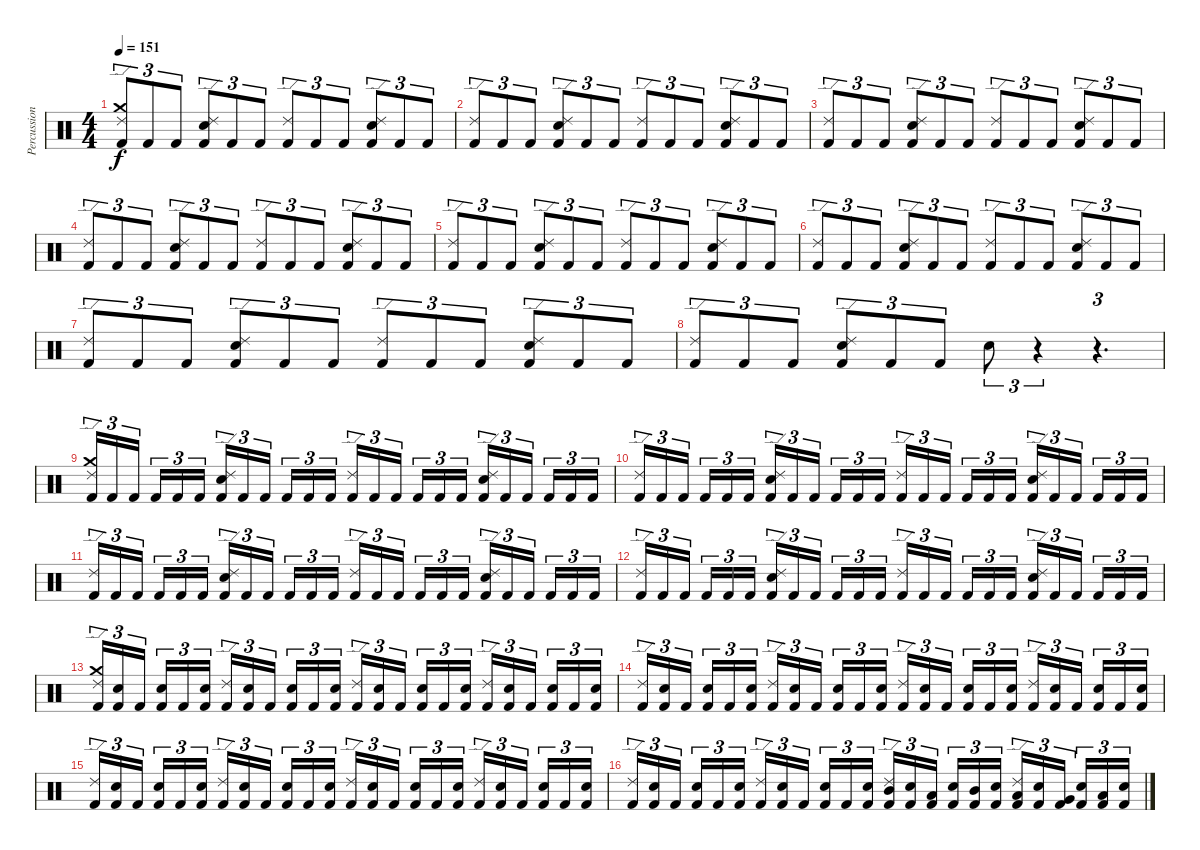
\track ("Percussion" "Percussion") {instrument percussion}
\staff {score}
\articulation defaults
\ts (4 4)
\tempo 151
\clef neutral
\ks c
("Kick (hit) 2" "Crash medium (hit)" "Ride (edge) 2").8{tu (3 2) dy f} "Kick (hit) 2".8{tu (3 2)} "Kick (hit) 2".8{tu (3 2)} ("Kick (hit) 2" "Electric Snare (hit)" "Ride (edge) 2").8{tu (3 2)} "Kick (hit) 2".8{tu (3 2)} "Kick (hit) 2".8{tu (3 2)} ("Kick (hit) 2" "Ride (edge) 2").8{tu (3 2)} "Kick (hit) 2".8{tu (3 2)} "Kick (hit) 2".8{tu (3 2)} ("Kick (hit) 2" "Electric Snare (hit)" "Ride (edge) 2").8{tu (3 2)} "Kick (hit) 2".8{tu (3 2)} "Kick (hit) 2".8{tu (3 2)} |
("Kick (hit) 2" "Ride (edge) 2").8{tu (3 2)} "Kick (hit) 2".8{tu (3 2)} "Kick (hit) 2".8{tu (3 2)} ("Kick (hit) 2" "Electric Snare (hit)" "Ride (edge) 2").8{tu (3 2)} "Kick (hit) 2".8{tu (3 2)} "Kick (hit) 2".8{tu (3 2)} ("Kick (hit) 2" "Ride (edge) 2").8{tu (3 2)} "Kick (hit) 2".8{tu (3 2)} "Kick (hit) 2".8{tu (3 2)} ("Kick (hit) 2" "Electric Snare (hit)" "Ride (edge) 2").8{tu (3 2)} "Kick (hit) 2".8{tu (3 2)} "Kick (hit) 2".8{tu (3 2)} |
("Kick (hit) 2" "Ride (edge) 2").8{tu (3 2)} "Kick (hit) 2".8{tu (3 2)} "Kick (hit) 2".8{tu (3 2)} ("Kick (hit) 2" "Electric Snare (hit)" "Ride (edge) 2").8{tu (3 2)} "Kick (hit) 2".8{tu (3 2)} "Kick (hit) 2".8{tu (3 2)} ("Kick (hit) 2" "Ride (edge) 2").8{tu (3 2)} "Kick (hit) 2".8{tu (3 2)} "Kick (hit) 2".8{tu (3 2)} ("Kick (hit) 2" "Electric Snare (hit)" "Ride (edge) 2").8{tu (3 2)} "Kick (hit) 2".8{tu (3 2)} "Kick (hit) 2".8{tu (3 2)} |
("Kick (hit) 2" "Ride (edge) 2").8{tu (3 2)} "Kick (hit) 2".8{tu (3 2)} "Kick (hit) 2".8{tu (3 2)} ("Kick (hit) 2" "Electric Snare (hit)" "Ride (edge) 2").8{tu (3 2)} "Kick (hit) 2".8{tu (3 2)} "Kick (hit) 2".8{tu (3 2)} ("Kick (hit) 2" "Ride (edge) 2").8{tu (3 2)} "Kick (hit) 2".8{tu (3 2)} "Kick (hit) 2".8{tu (3 2)} ("Kick (hit) 2" "Electric Snare (hit)" "Ride (edge) 2").8{tu (3 2)} "Kick (hit) 2".8{tu (3 2)} "Kick (hit) 2".8{tu (3 2)} |
("Kick (hit) 2" "Ride (edge) 2").8{tu (3 2)} "Kick (hit) 2".8{tu (3 2)} "Kick (hit) 2".8{tu (3 2)} ("Kick (hit) 2" "Electric Snare (hit)" "Ride (edge) 2").8{tu (3 2)} "Kick (hit) 2".8{tu (3 2)} "Kick (hit) 2".8{tu (3 2)} ("Kick (hit) 2" "Ride (edge) 2").8{tu (3 2)} "Kick (hit) 2".8{tu (3 2)} "Kick (hit) 2".8{tu (3 2)} ("Kick (hit) 2" "Electric Snare (hit)" "Ride (edge) 2").8{tu (3 2)} "Kick (hit) 2".8{tu (3 2)} "Kick (hit) 2".8{tu (3 2)} |
("Kick (hit) 2" "Ride (edge) 2").8{tu (3 2)} "Kick (hit) 2".8{tu (3 2)} "Kick (hit) 2".8{tu (3 2)} ("Kick (hit) 2" "Electric Snare (hit)" "Ride (edge) 2").8{tu (3 2)} "Kick (hit) 2".8{tu (3 2)} "Kick (hit) 2".8{tu (3 2)} ("Kick (hit) 2" "Ride (edge) 2").8{tu (3 2)} "Kick (hit) 2".8{tu (3 2)} "Kick (hit) 2".8{tu (3 2)} ("Kick (hit) 2" "Electric Snare (hit)" "Ride (edge) 2").8{tu (3 2)} "Kick (hit) 2".8{tu (3 2)} "Kick (hit) 2".8{tu (3 2)} |
("Kick (hit) 2" "Ride (edge) 2").8{tu (3 2)} "Kick (hit) 2".8{tu (3 2)} "Kick (hit) 2".8{tu (3 2)} ("Kick (hit) 2" "Electric Snare (hit)" "Ride (edge) 2").8{tu (3 2)} "Kick (hit) 2".8{tu (3 2)} "Kick (hit) 2".8{tu (3 2)} ("Kick (hit) 2" "Ride (edge) 2").8{tu (3 2)} "Kick (hit) 2".8{tu (3 2)} "Kick (hit) 2".8{tu (3 2)} ("Kick (hit) 2" "Electric Snare (hit)" "Ride (edge) 2").8{tu (3 2)} "Kick (hit) 2".8{tu (3 2)} "Kick (hit) 2".8{tu (3 2)} |
("Kick (hit) 2" "Ride (edge) 2").8{tu (3 2)} "Kick (hit) 2".8{tu (3 2)} "Kick (hit) 2".8{tu (3 2)} ("Kick (hit) 2" "Electric Snare (hit)" "Ride (edge) 2").8{tu (3 2)} "Kick (hit) 2".8{tu (3 2)} "Kick (hit) 2".8{tu (3 2)} "Electric Snare (hit)".8{tu (3 2)} r.4{tu (3 2)} r.4{d tu (3 2)} |
("Kick (hit) 2" "Crash medium (hit)" "Ride (edge) 2").16{tu (3 2)} "Kick (hit) 2".16{tu (3 2)} "Kick (hit) 2".16{tu (3 2)} "Kick (hit) 2".16{tu (3 2)} "Kick (hit) 2".16{tu (3 2)} "Kick (hit) 2".16{tu (3 2)} ("Kick (hit) 2" "Electric Snare (hit)" "Ride (edge) 2").16{tu (3 2)} "Kick (hit) 2".16{tu (3 2)} "Kick (hit) 2".16{tu (3 2)} "Kick (hit) 2".16{tu (3 2)} "Kick (hit) 2".16{tu (3 2)} "Kick (hit) 2".16{tu (3 2)} ("Kick (hit) 2" "Ride (edge) 2").16{tu (3 2)} "Kick (hit) 2".16{tu (3 2)} "Kick (hit) 2".16{tu (3 2)} "Kick (hit) 2".16{tu (3 2)} "Kick (hit) 2".16{tu (3 2)} "Kick (hit) 2".16{tu (3 2)} ("Kick (hit) 2" "Electric Snare (hit)" "Ride (edge) 2").16{tu (3 2)} "Kick (hit) 2".16{tu (3 2)} "Kick (hit) 2".16{tu (3 2)} "Kick (hit) 2".16{tu (3 2)} "Kick (hit) 2".16{tu (3 2)} "Kick (hit) 2".16{tu (3 2)} |
("Kick (hit) 2" "Ride (edge) 2").16{tu (3 2)} "Kick (hit) 2".16{tu (3 2)} "Kick (hit) 2".16{tu (3 2)} "Kick (hit) 2".16{tu (3 2)} "Kick (hit) 2".16{tu (3 2)} "Kick (hit) 2".16{tu (3 2)} ("Kick (hit) 2" "Electric Snare (hit)" "Ride (edge) 2").16{tu (3 2)} "Kick (hit) 2".16{tu (3 2)} "Kick (hit) 2".16{tu (3 2)} "Kick (hit) 2".16{tu (3 2)} "Kick (hit) 2".16{tu (3 2)} "Kick (hit) 2".16{tu (3 2)} ("Kick (hit) 2" "Ride (edge) 2").16{tu (3 2)} "Kick (hit) 2".16{tu (3 2)} "Kick (hit) 2".16{tu (3 2)} "Kick (hit) 2".16{tu (3 2)} "Kick (hit) 2".16{tu (3 2)} "Kick (hit) 2".16{tu (3 2)} ("Kick (hit) 2" "Electric Snare (hit)" "Ride (edge) 2").16{tu (3 2)} "Kick (hit) 2".16{tu (3 2)} "Kick (hit) 2".16{tu (3 2)} "Kick (hit) 2".16{tu (3 2)} "Kick (hit) 2".16{tu (3 2)} "Kick (hit) 2".16{tu (3 2)} |
("Kick (hit) 2" "Ride (edge) 2").16{tu (3 2)} "Kick (hit) 2".16{tu (3 2)} "Kick (hit) 2".16{tu (3 2)} "Kick (hit) 2".16{tu (3 2)} "Kick (hit) 2".16{tu (3 2)} "Kick (hit) 2".16{tu (3 2)} ("Kick (hit) 2" "Electric Snare (hit)" "Ride (edge) 2").16{tu (3 2)} "Kick (hit) 2".16{tu (3 2)} "Kick (hit) 2".16{tu (3 2)} "Kick (hit) 2".16{tu (3 2)} "Kick (hit) 2".16{tu (3 2)} "Kick (hit) 2".16{tu (3 2)} ("Kick (hit) 2" "Ride (edge) 2").16{tu (3 2)} "Kick (hit) 2".16{tu (3 2)} "Kick (hit) 2".16{tu (3 2)} "Kick (hit) 2".16{tu (3 2)} "Kick (hit) 2".16{tu (3 2)} "Kick (hit) 2".16{tu (3 2)} ("Kick (hit) 2" "Electric Snare (hit)" "Ride (edge) 2").16{tu (3 2)} "Kick (hit) 2".16{tu (3 2)} "Kick (hit) 2".16{tu (3 2)} "Kick (hit) 2".16{tu (3 2)} "Kick (hit) 2".16{tu (3 2)} "Kick (hit) 2".16{tu (3 2)} |
("Kick (hit) 2" "Ride (edge) 2").16{tu (3 2)} "Kick (hit) 2".16{tu (3 2)} "Kick (hit) 2".16{tu (3 2)} "Kick (hit) 2".16{tu (3 2)} "Kick (hit) 2".16{tu (3 2)} "Kick (hit) 2".16{tu (3 2)} ("Kick (hit) 2" "Electric Snare (hit)" "Ride (edge) 2").16{tu (3 2)} "Kick (hit) 2".16{tu (3 2)} "Kick (hit) 2".16{tu (3 2)} "Kick (hit) 2".16{tu (3 2)} "Kick (hit) 2".16{tu (3 2)} "Kick (hit) 2".16{tu (3 2)} ("Kick (hit) 2" "Ride (edge) 2").16{tu (3 2)} "Kick (hit) 2".16{tu (3 2)} "Kick (hit) 2".16{tu (3 2)} "Kick (hit) 2".16{tu (3 2)} "Kick (hit) 2".16{tu (3 2)} "Kick (hit) 2".16{tu (3 2)} ("Kick (hit) 2" "Electric Snare (hit)" "Ride (edge) 2").16{tu (3 2)} "Kick (hit) 2".16{tu (3 2)} "Kick (hit) 2".16{tu (3 2)} "Kick (hit) 2".16{tu (3 2)} "Kick (hit) 2".16{tu (3 2)} "Kick (hit) 2".16{tu (3 2)} |
("Kick (hit) 2" "Crash medium (hit)" "Ride (edge) 2").16{tu (3 2)} ("Kick (hit) 2" "Electric Snare (hit)").16{tu (3 2)} "Kick (hit) 2".16{tu (3 2)} ("Kick (hit) 2" "Electric Snare (hit)").16{tu (3 2)} "Kick (hit) 2".16{tu (3 2)} ("Kick (hit) 2" "Electric Snare (hit)").16{tu (3 2)} ("Kick (hit) 2" "Ride (edge) 2").16{tu (3 2)} ("Kick (hit) 2" "Electric Snare (hit)").16{tu (3 2)} "Kick (hit) 2".16{tu (3 2)} ("Kick (hit) 2" "Electric Snare (hit)").16{tu (3 2)} "Kick (hit) 2".16{tu (3 2)} ("Kick (hit) 2" "Electric Snare (hit)").16{tu (3 2)} ("Kick (hit) 2" "Ride (edge) 2").16{tu (3 2)} ("Kick (hit) 2" "Electric Snare (hit)").16{tu (3 2)} "Kick (hit) 2".16{tu (3 2)} ("Kick (hit) 2" "Electric Snare (hit)").16{tu (3 2)} "Kick (hit) 2".16{tu (3 2)} ("Kick (hit) 2" "Electric Snare (hit)").16{tu (3 2)} ("Kick (hit) 2" "Ride (edge) 2").16{tu (3 2)} ("Kick (hit) 2" "Electric Snare (hit)").16{tu (3 2)} "Kick (hit) 2".16{tu (3 2)} ("Kick (hit) 2" "Electric Snare (hit)").16{tu (3 2)} "Kick (hit) 2".16{tu (3 2)} ("Kick (hit) 2" "Electric Snare (hit)").16{tu (3 2)} |
("Kick (hit) 2" "Ride (edge) 2").16{tu (3 2)} ("Kick (hit) 2" "Electric Snare (hit)").16{tu (3 2)} "Kick (hit) 2".16{tu (3 2)} ("Kick (hit) 2" "Electric Snare (hit)").16{tu (3 2)} "Kick (hit) 2".16{tu (3 2)} ("Kick (hit) 2" "Electric Snare (hit)").16{tu (3 2)} ("Kick (hit) 2" "Ride (edge) 2").16{tu (3 2)} ("Kick (hit) 2" "Electric Snare (hit)").16{tu (3 2)} "Kick (hit) 2".16{tu (3 2)} ("Kick (hit) 2" "Electric Snare (hit)").16{tu (3 2)} "Kick (hit) 2".16{tu (3 2)} ("Kick (hit) 2" "Electric Snare (hit)").16{tu (3 2)} ("Kick (hit) 2" "Ride (edge) 2").16{tu (3 2)} ("Kick (hit) 2" "Electric Snare (hit)").16{tu (3 2)} "Kick (hit) 2".16{tu (3 2)} ("Kick (hit) 2" "Electric Snare (hit)").16{tu (3 2)} "Kick (hit) 2".16{tu (3 2)} ("Kick (hit) 2" "Electric Snare (hit)").16{tu (3 2)} ("Kick (hit) 2" "Ride (edge) 2").16{tu (3 2)} ("Kick (hit) 2" "Electric Snare (hit)").16{tu (3 2)} "Kick (hit) 2".16{tu (3 2)} ("Kick (hit) 2" "Electric Snare (hit)").16{tu (3 2)} "Kick (hit) 2".16{tu (3 2)} ("Kick (hit) 2" "Electric Snare (hit)").16{tu (3 2)} |
("Kick (hit) 2" "Ride (edge) 2").16{tu (3 2)} ("Kick (hit) 2" "Electric Snare (hit)").16{tu (3 2)} "Kick (hit) 2".16{tu (3 2)} ("Kick (hit) 2" "Electric Snare (hit)").16{tu (3 2)} "Kick (hit) 2".16{tu (3 2)} ("Kick (hit) 2" "Electric Snare (hit)").16{tu (3 2)} ("Kick (hit) 2" "Ride (edge) 2").16{tu (3 2)} ("Kick (hit) 2" "Electric Snare (hit)").16{tu (3 2)} "Kick (hit) 2".16{tu (3 2)} ("Kick (hit) 2" "Electric Snare (hit)").16{tu (3 2)} "Kick (hit) 2".16{tu (3 2)} ("Kick (hit) 2" "Electric Snare (hit)").16{tu (3 2)} ("Kick (hit) 2" "Ride (edge) 2").16{tu (3 2)} ("Kick (hit) 2" "Electric Snare (hit)").16{tu (3 2)} "Kick (hit) 2".16{tu (3 2)} ("Kick (hit) 2" "Electric Snare (hit)").16{tu (3 2)} "Kick (hit) 2".16{tu (3 2)} ("Kick (hit) 2" "Electric Snare (hit)").16{tu (3 2)} ("Kick (hit) 2" "Ride (edge) 2").16{tu (3 2)} ("Kick (hit) 2" "Electric Snare (hit)").16{tu (3 2)} "Kick (hit) 2".16{tu (3 2)} ("Kick (hit) 2" "Electric Snare (hit)").16{tu (3 2)} "Kick (hit) 2".16{tu (3 2)} ("Kick (hit) 2" "Electric Snare (hit)").16{tu (3 2)} |
("Kick (hit) 2" "Ride (edge) 2").16{tu (3 2)} ("Kick (hit) 2" "Electric Snare (hit)").16{tu (3 2)} "Kick (hit) 2".16{tu (3 2)} ("Kick (hit) 2" "Electric Snare (hit)").16{tu (3 2)} "Kick (hit) 2".16{tu (3 2)} ("Kick (hit) 2" "Electric Snare (hit)").16{tu (3 2)} ("Kick (hit) 2" "Ride (edge) 2").16{tu (3 2)} ("Kick (hit) 2" "Electric Snare (hit)").16{tu (3 2)} "Kick (hit) 2".16{tu (3 2)} ("Kick (hit) 2" "Electric Snare (hit)").16{tu (3 2)} "Kick (hit) 2".16{tu (3 2)} ("Kick (hit) 2" "Electric Snare (hit)").16{tu (3 2)} ("Kick (hit) 2" "Mid Tom (hit)" "Ride (edge) 2").16{tu (3 2)} ("Kick (hit) 2" "Electric Snare (hit)").16{tu (3 2)} ("Kick (hit) 2" "Low Tom (hit)").16{tu (3 2)} ("Kick (hit) 2" "Electric Snare (hit)").16{tu (3 2)} ("Kick (hit) 2" "Mid Tom (hit)").16{tu (3 2)} ("Kick (hit) 2" "Electric Snare (hit)").16{tu (3 2)} ("Kick (hit) 2" "Low Tom (hit)" "Ride (edge) 2").16{tu (3 2)} ("Kick (hit) 2" "Electric Snare (hit)").16{tu (3 2)} ("Kick (hit) 2" "Very Low Tom (hit)").16{tu (3 2)} ("Kick (hit) 2" "Electric Snare (hit)").16{tu (3 2)} ("Kick (hit) 2" "Low Tom (hit)").16{tu (3 2)} ("Kick (hit) 2" "Electric Snare (hit)").16{tu (3 2)}
